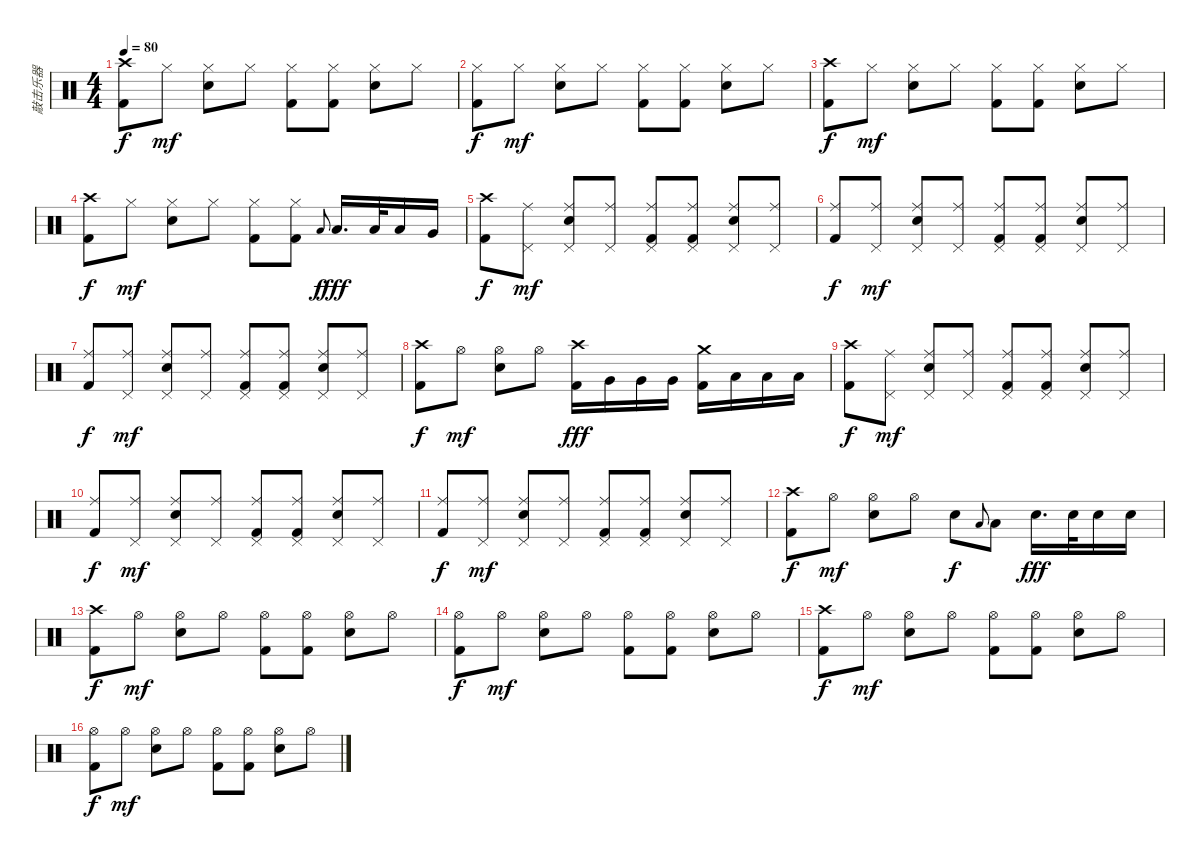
\track ("敲击乐器" "敲击乐器") {instrument percussion}
\staff {score}
\articulation defaults
\ts (4 4)
\tempo 80
\clef neutral
\ks c
("Crash high (hit)" "Kick (hit) 2").8{dy f} "Hi-Hat (closed)".8{dy mf} ("Electric Snare (hit)" "Hi-Hat (closed)").8 "Hi-Hat (closed)".8 ("Hi-Hat (closed)" "Kick (hit) 2").8 ("Kick (hit) 2" "Hi-Hat (closed)").8 ("Electric Snare (hit)" "Hi-Hat (closed)").8 "Hi-Hat (closed)".8 |
("Hi-Hat (closed)" "Kick (hit) 2").8{dy f} "Hi-Hat (closed)".8{dy mf} ("Electric Snare (hit)" "Hi-Hat (closed)").8 "Hi-Hat (closed)".8 ("Kick (hit) 2" "Hi-Hat (closed)").8 ("Kick (hit) 2" "Hi-Hat (closed)").8 ("Electric Snare (hit)" "Hi-Hat (closed)").8 "Hi-Hat (closed)".8 |
("Crash high (hit)" "Kick (hit) 2").8{dy f} "Hi-Hat (closed)".8{dy mf} ("Electric Snare (hit)" "Hi-Hat (closed)").8 "Hi-Hat (closed)".8 ("Kick (hit) 2" "Hi-Hat (closed)").8 ("Kick (hit) 2" "Hi-Hat (closed)").8 ("Electric Snare (hit)" "Hi-Hat (closed)").8 "Hi-Hat (closed)".8 |
("Crash high (hit)" "Kick (hit) 2").8{dy f} "Hi-Hat (closed)".8{dy mf} ("Electric Snare (hit)" "Hi-Hat (closed)").8 "Hi-Hat (closed)".8 ("Hi-Hat (closed)" "Kick (hit) 2").8 ("Kick (hit) 2" "Hi-Hat (closed)").8 "Low Tom (hit)".8{gr onbeat dy f} "Low Tom (hit)".16{d dy fff} "Low Tom (hit)".32 "Low Tom (hit)".16 "Very Low Tom (hit)".16 |
("Crash high (hit)" "Kick (hit) 2").8{dy f} ("Ride (middle)" "Pedal Hi-Hat (hit)").8{dy mf} ("Ride (middle)" "Electric Snare (hit)" "Pedal Hi-Hat (hit)").8 ("Ride (middle)" "Pedal Hi-Hat (hit)").8 ("Ride (middle)" "Kick (hit) 2" "Pedal Hi-Hat (hit)").8 ("Ride (middle)" "Kick (hit) 2" "Pedal Hi-Hat (hit)").8 ("Ride (middle)" "Electric Snare (hit)" "Pedal Hi-Hat (hit)").8 ("Ride (middle)" "Pedal Hi-Hat (hit)").8 |
("Ride (middle)" "Kick (hit) 2").8{dy f} ("Ride (middle)" "Pedal Hi-Hat (hit)").8{dy mf} ("Ride (middle)" "Electric Snare (hit)" "Pedal Hi-Hat (hit)").8 ("Ride (middle)" "Pedal Hi-Hat (hit)").8 ("Ride (middle)" "Kick (hit) 2" "Pedal Hi-Hat (hit)").8 ("Ride (middle)" "Kick (hit) 2" "Pedal Hi-Hat (hit)").8 ("Ride (middle)" "Electric Snare (hit)" "Pedal Hi-Hat (hit)").8 ("Ride (middle)" "Pedal Hi-Hat (hit)").8 |
("Ride (middle)" "Kick (hit) 2").8{dy f} ("Ride (middle)" "Pedal Hi-Hat (hit)").8{dy mf} ("Ride (middle)" "Electric Snare (hit)" "Pedal Hi-Hat (hit)").8 ("Ride (middle)" "Pedal Hi-Hat (hit)").8 ("Ride (middle)" "Kick (hit) 2" "Pedal Hi-Hat (hit)").8 ("Ride (middle)" "Kick (hit) 2" "Pedal Hi-Hat (hit)").8 ("Ride (middle)" "Electric Snare (hit)" "Pedal Hi-Hat (hit)").8 ("Ride (middle)" "Pedal Hi-Hat (hit)").8 |
("Crash high (hit)" "Kick (hit) 2").8{dy f} "Hi-Hat (open)".8{dy mf} ("Electric Snare (hit)" "Hi-Hat (open)").8 "Hi-Hat (open)".8 ("Crash high (hit)" "Kick (hit) 2").16{dy fff} "Very Low Tom (hit)".16 "Very Low Tom (hit)".16 "Very Low Tom (hit)".16 ("Crash medium (hit)" "Kick (hit) 2").16 "Low Tom (hit)".16 "Low Tom (hit)".16 "Low Tom (hit)".16 |
("Crash high (hit)" "Kick (hit) 2").8{dy f} ("Ride (middle)" "Pedal Hi-Hat (hit)").8{dy mf} ("Ride (middle)" "Electric Snare (hit)" "Pedal Hi-Hat (hit)").8 ("Ride (middle)" "Pedal Hi-Hat (hit)").8 ("Ride (middle)" "Kick (hit) 2" "Pedal Hi-Hat (hit)").8 ("Ride (middle)" "Kick (hit) 2" "Pedal Hi-Hat (hit)").8 ("Ride (middle)" "Electric Snare (hit)" "Pedal Hi-Hat (hit)").8 ("Ride (middle)" "Pedal Hi-Hat (hit)").8 |
("Ride (middle)" "Kick (hit) 2").8{dy f} ("Ride (middle)" "Pedal Hi-Hat (hit)").8{dy mf} ("Ride (middle)" "Electric Snare (hit)" "Pedal Hi-Hat (hit)").8 ("Ride (middle)" "Pedal Hi-Hat (hit)").8 ("Ride (middle)" "Kick (hit) 2" "Pedal Hi-Hat (hit)").8 ("Ride (middle)" "Kick (hit) 2" "Pedal Hi-Hat (hit)").8 ("Ride (middle)" "Electric Snare (hit)" "Pedal Hi-Hat (hit)").8 ("Ride (middle)" "Pedal Hi-Hat (hit)").8 |
("Ride (middle)" "Kick (hit) 2").8{dy f} ("Ride (middle)" "Pedal Hi-Hat (hit)").8{dy mf} ("Ride (middle)" "Electric Snare (hit)" "Pedal Hi-Hat (hit)").8 ("Ride (middle)" "Pedal Hi-Hat (hit)").8 ("Ride (middle)" "Kick (hit) 2" "Pedal Hi-Hat (hit)").8 ("Ride (middle)" "Kick (hit) 2" "Pedal Hi-Hat (hit)").8 ("Ride (middle)" "Electric Snare (hit)" "Pedal Hi-Hat (hit)").8 ("Ride (middle)" "Pedal Hi-Hat (hit)").8 |
("Crash high (hit)" "Kick (hit) 2").8{dy f} "Hi-Hat (open)".8{dy mf} ("Electric Snare (hit)" "Hi-Hat (open)").8 "Hi-Hat (open)".8 "Electric Snare (hit)".8{dy f} "Low Tom (hit)".8{gr onbeat} "Low Tom (hit)".8 "Electric Snare (hit)".16{d dy fff} "Electric Snare (hit)".32 "Electric Snare (hit)".16 "Electric Snare (hit)".16 |
("Crash high (hit)" "Kick (hit) 2").8{dy f} "Hi-Hat (open)".8{dy mf} ("Electric Snare (hit)" "Hi-Hat (open)").8 "Hi-Hat (open)".8 ("Kick (hit) 2" "Hi-Hat (open)").8 ("Kick (hit) 2" "Hi-Hat (open)").8 ("Electric Snare (hit)" "Hi-Hat (open)").8 "Hi-Hat (open)".8 |
("Hi-Hat (open)" "Kick (hit) 2").8{dy f} "Hi-Hat (open)".8{dy mf} ("Electric Snare (hit)" "Hi-Hat (open)").8 "Hi-Hat (open)".8 ("Kick (hit) 2" "Hi-Hat (open)").8 ("Kick (hit) 2" "Hi-Hat (open)").8 ("Electric Snare (hit)" "Hi-Hat (open)").8 "Hi-Hat (open)".8 |
("Crash high (hit)" "Kick (hit) 2").8{dy f} "Hi-Hat (open)".8{dy mf} ("Electric Snare (hit)" "Hi-Hat (open)").8 "Hi-Hat (open)".8 ("Kick (hit) 2" "Hi-Hat (open)").8 ("Kick (hit) 2" "Hi-Hat (open)").8 ("Electric Snare (hit)" "Hi-Hat (open)").8 "Hi-Hat (open)".8 |
("Hi-Hat (open)" "Kick (hit) 2").8{dy f} "Hi-Hat (open)".8{dy mf} ("Electric Snare (hit)" "Hi-Hat (open)").8 "Hi-Hat (open)".8 ("Kick (hit) 2" "Hi-Hat (open)").8 ("Kick (hit) 2" "Hi-Hat (open)").8 ("Electric Snare (hit)" "Hi-Hat (open)").8 "Hi-Hat (open)".8
